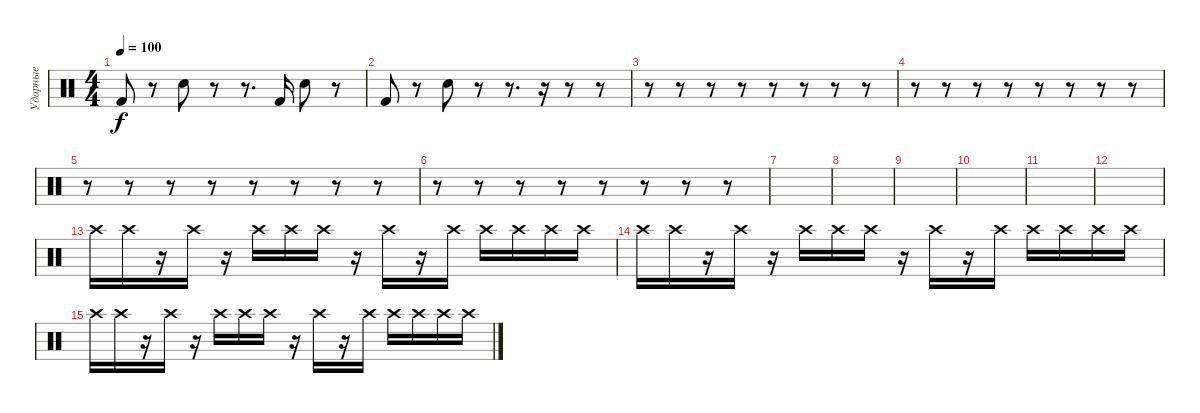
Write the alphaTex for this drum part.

\track ("Ударные" "Ударные") {instrument percussion}
\staff {score}
\articulation defaults
\ts (4 4)
\tempo 100
\clef neutral
\ks c "Kick (hit) 2".8{dy f}
r.8 "Electric Snare (hit)".8 r.8 r.8{d} "Kick (hit) 2".16 "Electric Snare (hit)".8 r.8 |
"Kick (hit) 2".8 r.8 "Electric Snare (hit)".8 r.8 r.8{d} r.16 r.8 r.8 |
r.8 r.8 r.8 r.8 r.8 r.8 r.8 r.8 |
r.8 r.8 r.8 r.8 r.8 r.8 r.8 r.8 |
r.8 r.8 r.8 r.8 r.8 r.8 r.8 r.8 |
r.8 r.8 r.8 r.8 r.8 r.8 r.8 r.8 |
|
|
|
|
|
|
"Crash high (hit)".16 "Crash high (hit)".16 r.16 "Crash high (hit)".16 r.16 "Crash high (hit)".16 "Crash high (hit)".16 "Crash high (hit)".16 r.16 "Crash high (hit)".16 r.16 "Crash high (hit)".16 "Crash high (hit)".16 "Crash high (hit)".16 "Crash high (hit)".16 "Crash high (hit)".16 |
"Crash high (hit)".16 "Crash high (hit)".16 r.16 "Crash high (hit)".16 r.16 "Crash high (hit)".16 "Crash high (hit)".16 "Crash high (hit)".16 r.16 "Crash high (hit)".16 r.16 "Crash high (hit)".16 "Crash high (hit)".16 "Crash high (hit)".16 "Crash high (hit)".16 "Crash high (hit)".16 |
"Crash high (hit)".16 "Crash high (hit)".16 r.16 "Crash high (hit)".16 r.16 "Crash high (hit)".16 "Crash high (hit)".16 "Crash high (hit)".16 r.16 "Crash high (hit)".16 r.16 "Crash high (hit)".16 "Crash high (hit)".16 "Crash high (hit)".16 "Crash high (hit)".16 "Crash high (hit)".16
